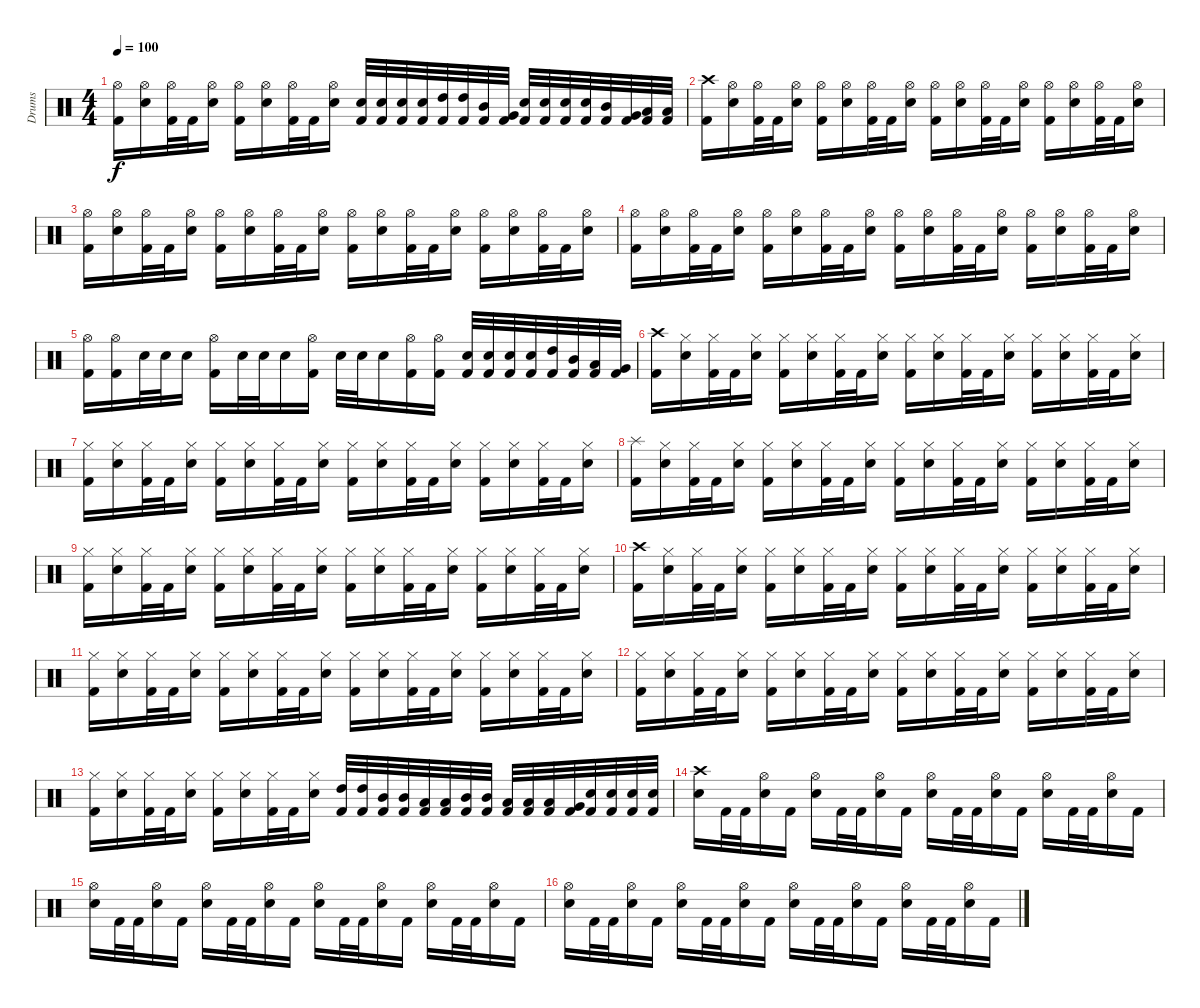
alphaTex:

\track ("Drums" "Drums") {instrument percussion}
\staff {score}
\articulation defaults
\ts (4 4)
\tempo 100
\clef neutral
\ks c
("Kick (hit) 2" "Hi-Hat (open)").16{dy f} ("Electric Snare (hit)" "Hi-Hat (open)").16 ("Kick (hit) 2" "Hi-Hat (open)").32 "Kick (hit) 2".32 ("Electric Snare (hit)" "Hi-Hat (open)").16 ("Kick (hit) 2" "Hi-Hat (open)").16 ("Electric Snare (hit)" "Hi-Hat (open)").16 ("Kick (hit) 2" "Hi-Hat (open)").32 "Kick (hit) 2".32 ("Electric Snare (hit)" "Hi-Hat (open)").16 ("Kick (hit) 2" "Electric Snare (hit)").32 ("Kick (hit) 2" "Electric Snare (hit)").32 ("Kick (hit) 2" "Electric Snare (hit)").32 ("Kick (hit) 2" "Electric Snare (hit)").32 ("Kick (hit) 2" "High Tom (hit)").32 ("Kick (hit) 2" "High Tom (hit)").32 ("Kick (hit) 2" "Mid Tom (hit)").32 ("Kick (hit) 2" "Very Low Tom (hit)").32 ("Kick (hit) 2" "Electric Snare (hit)").32 ("Kick (hit) 2" "Electric Snare (hit)").32 ("Kick (hit) 2" "Electric Snare (hit)").32 ("Kick (hit) 2" "Electric Snare (hit)").32 ("Kick (hit) 2" "Mid Tom (hit)").32 ("Kick (hit) 2" "Very Low Tom (hit)").32 ("Kick (hit) 2" "Low Floor Tom (hit)").32 ("Kick (hit) 2" "Low Floor Tom (hit)").32 |
("Kick (hit) 2" "Crash high (hit)").16 ("Electric Snare (hit)" "Hi-Hat (open)").16 ("Kick (hit) 2" "Hi-Hat (open)").32 "Kick (hit) 2".32 ("Electric Snare (hit)" "Hi-Hat (open)").16 ("Kick (hit) 2" "Hi-Hat (open)").16 ("Electric Snare (hit)" "Hi-Hat (open)").16 ("Kick (hit) 2" "Hi-Hat (open)").32 "Kick (hit) 2".32 ("Electric Snare (hit)" "Hi-Hat (open)").16 ("Kick (hit) 2" "Hi-Hat (open)").16 ("Electric Snare (hit)" "Hi-Hat (open)").16 ("Kick (hit) 2" "Hi-Hat (open)").32 "Kick (hit) 2".32 ("Electric Snare (hit)" "Hi-Hat (open)").16 ("Kick (hit) 2" "Hi-Hat (open)").16 ("Electric Snare (hit)" "Hi-Hat (open)").16 ("Kick (hit) 2" "Hi-Hat (open)").32 "Kick (hit) 2".32 ("Electric Snare (hit)" "Hi-Hat (open)").16 |
("Kick (hit) 2" "Hi-Hat (open)").16 ("Electric Snare (hit)" "Hi-Hat (open)").16 ("Kick (hit) 2" "Hi-Hat (open)").32 "Kick (hit) 2".32 ("Electric Snare (hit)" "Hi-Hat (open)").16 ("Kick (hit) 2" "Hi-Hat (open)").16 ("Electric Snare (hit)" "Hi-Hat (open)").16 ("Kick (hit) 2" "Hi-Hat (open)").32 "Kick (hit) 2".32 ("Electric Snare (hit)" "Hi-Hat (open)").16 ("Kick (hit) 2" "Hi-Hat (open)").16 ("Electric Snare (hit)" "Hi-Hat (open)").16 ("Kick (hit) 2" "Hi-Hat (open)").32 "Kick (hit) 2".32 ("Electric Snare (hit)" "Hi-Hat (open)").16 ("Kick (hit) 2" "Hi-Hat (open)").16 ("Electric Snare (hit)" "Hi-Hat (open)").16 ("Kick (hit) 2" "Hi-Hat (open)").32 "Kick (hit) 2".32 ("Electric Snare (hit)" "Hi-Hat (open)").16 |
("Kick (hit) 2" "Hi-Hat (open)").16 ("Electric Snare (hit)" "Hi-Hat (open)").16 ("Kick (hit) 2" "Hi-Hat (open)").32 "Kick (hit) 2".32 ("Electric Snare (hit)" "Hi-Hat (open)").16 ("Kick (hit) 2" "Hi-Hat (open)").16 ("Electric Snare (hit)" "Hi-Hat (open)").16 ("Kick (hit) 2" "Hi-Hat (open)").32 "Kick (hit) 2".32 ("Electric Snare (hit)" "Hi-Hat (open)").16 ("Kick (hit) 2" "Hi-Hat (open)").16 ("Electric Snare (hit)" "Hi-Hat (open)").16 ("Kick (hit) 2" "Hi-Hat (open)").32 "Kick (hit) 2".32 ("Electric Snare (hit)" "Hi-Hat (open)").16 ("Kick (hit) 2" "Hi-Hat (open)").16 ("Electric Snare (hit)" "Hi-Hat (open)").16 ("Kick (hit) 2" "Hi-Hat (open)").32 "Kick (hit) 2".32 ("Electric Snare (hit)" "Hi-Hat (open)").16 |
("Kick (hit) 2" "Hi-Hat (open)").16 ("Kick (hit) 2" "Hi-Hat (open)").16 "Electric Snare (hit)".32 "Electric Snare (hit)".32 "Electric Snare (hit)".16 ("Kick (hit) 2" "Hi-Hat (open)").16 "Electric Snare (hit)".32 "Electric Snare (hit)".32 "Electric Snare (hit)".16 ("Kick (hit) 2" "Hi-Hat (open)").16 "Electric Snare (hit)".32 "Electric Snare (hit)".32 "Electric Snare (hit)".16 ("Kick (hit) 2" "Hi-Hat (open)").16 ("Kick (hit) 2" "Hi-Hat (open)").16 ("Kick (hit) 2" "Electric Snare (hit)").32 ("Kick (hit) 2" "Electric Snare (hit)").32 ("Kick (hit) 2" "Electric Snare (hit)").32 ("Kick (hit) 2" "Electric Snare (hit)").32 ("Kick (hit) 2" "High Tom (hit)").32 ("Kick (hit) 2" "Mid Tom (hit)").32 ("Kick (hit) 2" "Low Tom (hit)").32 ("Kick (hit) 2" "Very Low Tom (hit)").32 |
\section ("" "")
("Kick (hit) 2" "Crash high (hit)").16 ("Electric Snare (hit)" "Hi-Hat (closed)").16 ("Kick (hit) 2" "Hi-Hat (closed)").32 "Kick (hit) 2".32 ("Electric Snare (hit)" "Hi-Hat (closed)").16 ("Kick (hit) 2" "Hi-Hat (closed)").16 ("Electric Snare (hit)" "Hi-Hat (closed)").16 ("Kick (hit) 2" "Hi-Hat (closed)").32 "Kick (hit) 2".32 ("Electric Snare (hit)" "Hi-Hat (closed)").16 ("Kick (hit) 2" "Hi-Hat (closed)").16 ("Electric Snare (hit)" "Hi-Hat (closed)").16 ("Kick (hit) 2" "Hi-Hat (closed)").32 "Kick (hit) 2".32 ("Electric Snare (hit)" "Hi-Hat (closed)").16 ("Kick (hit) 2" "Hi-Hat (closed)").16 ("Electric Snare (hit)" "Hi-Hat (closed)").16 ("Kick (hit) 2" "Hi-Hat (closed)").32 "Kick (hit) 2".32 ("Electric Snare (hit)" "Hi-Hat (closed)").16 |
("Kick (hit) 2" "Hi-Hat (closed)").16 ("Electric Snare (hit)" "Hi-Hat (closed)").16 ("Kick (hit) 2" "Hi-Hat (closed)").32 "Kick (hit) 2".32 ("Electric Snare (hit)" "Hi-Hat (closed)").16 ("Kick (hit) 2" "Hi-Hat (closed)").16 ("Electric Snare (hit)" "Hi-Hat (closed)").16 ("Kick (hit) 2" "Hi-Hat (closed)").32 "Kick (hit) 2".32 ("Electric Snare (hit)" "Hi-Hat (closed)").16 ("Kick (hit) 2" "Hi-Hat (closed)").16 ("Electric Snare (hit)" "Hi-Hat (closed)").16 ("Kick (hit) 2" "Hi-Hat (closed)").32 "Kick (hit) 2".32 ("Electric Snare (hit)" "Hi-Hat (closed)").16 ("Kick (hit) 2" "Hi-Hat (closed)").16 ("Electric Snare (hit)" "Hi-Hat (closed)").16 ("Kick (hit) 2" "Hi-Hat (closed)").32 "Kick (hit) 2".32 ("Electric Snare (hit)" "Hi-Hat (closed)").16 |
("Kick (hit) 2" "Splash (hit)").16 ("Electric Snare (hit)" "Hi-Hat (closed)").16 ("Kick (hit) 2" "Hi-Hat (closed)").32 "Kick (hit) 2".32 ("Electric Snare (hit)" "Hi-Hat (closed)").16 ("Kick (hit) 2" "Hi-Hat (closed)").16 ("Electric Snare (hit)" "Hi-Hat (closed)").16 ("Kick (hit) 2" "Hi-Hat (closed)").32 "Kick (hit) 2".32 ("Electric Snare (hit)" "Hi-Hat (closed)").16 ("Kick (hit) 2" "Hi-Hat (closed)").16 ("Electric Snare (hit)" "Hi-Hat (closed)").16 ("Kick (hit) 2" "Hi-Hat (closed)").32 "Kick (hit) 2".32 ("Electric Snare (hit)" "Hi-Hat (closed)").16 ("Kick (hit) 2" "Hi-Hat (closed)").16 ("Electric Snare (hit)" "Hi-Hat (closed)").16 ("Kick (hit) 2" "Hi-Hat (closed)").32 "Kick (hit) 2".32 ("Electric Snare (hit)" "Hi-Hat (closed)").16 |
("Kick (hit) 2" "Hi-Hat (closed)").16 ("Electric Snare (hit)" "Hi-Hat (closed)").16 ("Kick (hit) 2" "Hi-Hat (closed)").32 "Kick (hit) 2".32 ("Electric Snare (hit)" "Hi-Hat (closed)").16 ("Kick (hit) 2" "Hi-Hat (closed)").16 ("Electric Snare (hit)" "Hi-Hat (closed)").16 ("Kick (hit) 2" "Hi-Hat (closed)").32 "Kick (hit) 2".32 ("Electric Snare (hit)" "Hi-Hat (closed)").16 ("Kick (hit) 2" "Hi-Hat (closed)").16 ("Electric Snare (hit)" "Hi-Hat (closed)").16 ("Kick (hit) 2" "Hi-Hat (closed)").32 "Kick (hit) 2".32 ("Electric Snare (hit)" "Hi-Hat (closed)").16 ("Kick (hit) 2" "Hi-Hat (closed)").16 ("Electric Snare (hit)" "Hi-Hat (closed)").16 ("Kick (hit) 2" "Hi-Hat (closed)").32 "Kick (hit) 2".32 ("Electric Snare (hit)" "Hi-Hat (closed)").16 |
("Kick (hit) 2" "Crash high (hit)").16 ("Electric Snare (hit)" "Hi-Hat (closed)").16 ("Kick (hit) 2" "Hi-Hat (closed)").32 "Kick (hit) 2".32 ("Electric Snare (hit)" "Hi-Hat (closed)").16 ("Kick (hit) 2" "Hi-Hat (closed)").16 ("Electric Snare (hit)" "Hi-Hat (closed)").16 ("Kick (hit) 2" "Hi-Hat (closed)").32 "Kick (hit) 2".32 ("Electric Snare (hit)" "Hi-Hat (closed)").16 ("Kick (hit) 2" "Hi-Hat (closed)").16 ("Electric Snare (hit)" "Hi-Hat (closed)").16 ("Kick (hit) 2" "Hi-Hat (closed)").32 "Kick (hit) 2".32 ("Electric Snare (hit)" "Hi-Hat (closed)").16 ("Kick (hit) 2" "Hi-Hat (closed)").16 ("Electric Snare (hit)" "Hi-Hat (closed)").16 ("Kick (hit) 2" "Hi-Hat (closed)").32 "Kick (hit) 2".32 ("Electric Snare (hit)" "Hi-Hat (closed)").16 |
("Kick (hit) 2" "Hi-Hat (closed)").16 ("Electric Snare (hit)" "Hi-Hat (closed)").16 ("Kick (hit) 2" "Hi-Hat (closed)").32 "Kick (hit) 2".32 ("Electric Snare (hit)" "Hi-Hat (closed)").16 ("Kick (hit) 2" "Hi-Hat (closed)").16 ("Electric Snare (hit)" "Hi-Hat (closed)").16 ("Kick (hit) 2" "Hi-Hat (closed)").32 "Kick (hit) 2".32 ("Electric Snare (hit)" "Hi-Hat (closed)").16 ("Kick (hit) 2" "Hi-Hat (closed)").16 ("Electric Snare (hit)" "Hi-Hat (closed)").16 ("Kick (hit) 2" "Hi-Hat (closed)").32 "Kick (hit) 2".32 ("Electric Snare (hit)" "Hi-Hat (closed)").16 ("Kick (hit) 2" "Hi-Hat (closed)").16 ("Electric Snare (hit)" "Hi-Hat (closed)").16 ("Kick (hit) 2" "Hi-Hat (closed)").32 "Kick (hit) 2".32 ("Electric Snare (hit)" "Hi-Hat (closed)").16 |
("Kick (hit) 2" "Hi-Hat (closed)").16 ("Electric Snare (hit)" "Hi-Hat (closed)").16 ("Kick (hit) 2" "Hi-Hat (closed)").32 "Kick (hit) 2".32 ("Electric Snare (hit)" "Hi-Hat (closed)").16 ("Kick (hit) 2" "Hi-Hat (closed)").16 ("Electric Snare (hit)" "Hi-Hat (closed)").16 ("Kick (hit) 2" "Hi-Hat (closed)").32 "Kick (hit) 2".32 ("Electric Snare (hit)" "Hi-Hat (closed)").16 ("Kick (hit) 2" "Hi-Hat (closed)").16 ("Electric Snare (hit)" "Hi-Hat (closed)").16 ("Kick (hit) 2" "Hi-Hat (closed)").32 "Kick (hit) 2".32 ("Electric Snare (hit)" "Hi-Hat (closed)").16 ("Kick (hit) 2" "Hi-Hat (closed)").16 ("Electric Snare (hit)" "Hi-Hat (closed)").16 ("Kick (hit) 2" "Hi-Hat (closed)").32 "Kick (hit) 2".32 ("Electric Snare (hit)" "Hi-Hat (closed)").16 |
("Kick (hit) 2" "Hi-Hat (closed)").16 ("Electric Snare (hit)" "Hi-Hat (closed)").16 ("Kick (hit) 2" "Hi-Hat (closed)").32 "Kick (hit) 2".32 ("Electric Snare (hit)" "Hi-Hat (closed)").16 ("Kick (hit) 2" "Hi-Hat (closed)").16 ("Electric Snare (hit)" "Hi-Hat (closed)").16 ("Kick (hit) 2" "Hi-Hat (closed)").32 "Kick (hit) 2".32 ("Electric Snare (hit)" "Hi-Hat (closed)").16 ("Kick (hit) 2" "High Tom (hit)").32 ("Kick (hit) 2" "High Tom (hit)").32 ("Kick (hit) 2" "Mid Tom (hit)").32 ("Kick (hit) 2" "Mid Tom (hit)").32 ("Kick (hit) 2" "Low Tom (hit)").32 ("Kick (hit) 2" "Low Tom (hit)").32 ("Kick (hit) 2" "Mid Tom (hit)").32 ("Kick (hit) 2" "Mid Tom (hit)").32 ("Kick (hit) 2" "Low Tom (hit)").32 ("Kick (hit) 2" "Low Tom (hit)").32 ("Kick (hit) 2" "Low Tom (hit)").32 ("Kick (hit) 2" "Very Low Tom (hit)").32 ("Kick (hit) 2" "Electric Snare (hit)").32 ("Kick (hit) 2" "Electric Snare (hit)").32 ("Kick (hit) 2" "Electric Snare (hit)").32 ("Kick (hit) 2" "Electric Snare (hit)").32 |
\section ("" "")
("Electric Snare (hit)" "Crash high (hit)").16 "Kick (hit) 2".32 "Kick (hit) 2".32 ("Electric Snare (hit)" "Hi-Hat (open)").16 "Kick (hit) 2".16 ("Electric Snare (hit)" "Hi-Hat (open)").16 "Kick (hit) 2".32 "Kick (hit) 2".32 ("Electric Snare (hit)" "Hi-Hat (open)").16 "Kick (hit) 2".16 ("Electric Snare (hit)" "Hi-Hat (open)").16 "Kick (hit) 2".32 "Kick (hit) 2".32 ("Electric Snare (hit)" "Hi-Hat (open)").16 "Kick (hit) 2".16 ("Electric Snare (hit)" "Hi-Hat (open)").16 "Kick (hit) 2".32 "Kick (hit) 2".32 ("Electric Snare (hit)" "Hi-Hat (open)").16 "Kick (hit) 2".16 |
("Electric Snare (hit)" "Hi-Hat (open)").16 "Kick (hit) 2".32 "Kick (hit) 2".32 ("Electric Snare (hit)" "Hi-Hat (open)").16 "Kick (hit) 2".16 ("Electric Snare (hit)" "Hi-Hat (open)").16 "Kick (hit) 2".32 "Kick (hit) 2".32 ("Electric Snare (hit)" "Hi-Hat (open)").16 "Kick (hit) 2".16 ("Electric Snare (hit)" "Hi-Hat (open)").16 "Kick (hit) 2".32 "Kick (hit) 2".32 ("Electric Snare (hit)" "Hi-Hat (open)").16 "Kick (hit) 2".16 ("Electric Snare (hit)" "Hi-Hat (open)").16 "Kick (hit) 2".32 "Kick (hit) 2".32 ("Electric Snare (hit)" "Hi-Hat (open)").16 "Kick (hit) 2".16 |
("Electric Snare (hit)" "Hi-Hat (open)").16 "Kick (hit) 2".32 "Kick (hit) 2".32 ("Electric Snare (hit)" "Hi-Hat (open)").16 "Kick (hit) 2".16 ("Electric Snare (hit)" "Hi-Hat (open)").16 "Kick (hit) 2".32 "Kick (hit) 2".32 ("Electric Snare (hit)" "Hi-Hat (open)").16 "Kick (hit) 2".16 ("Electric Snare (hit)" "Hi-Hat (open)").16 "Kick (hit) 2".32 "Kick (hit) 2".32 ("Electric Snare (hit)" "Hi-Hat (open)").16 "Kick (hit) 2".16 ("Electric Snare (hit)" "Hi-Hat (open)").16 "Kick (hit) 2".32 "Kick (hit) 2".32 ("Electric Snare (hit)" "Hi-Hat (open)").16 "Kick (hit) 2".16
